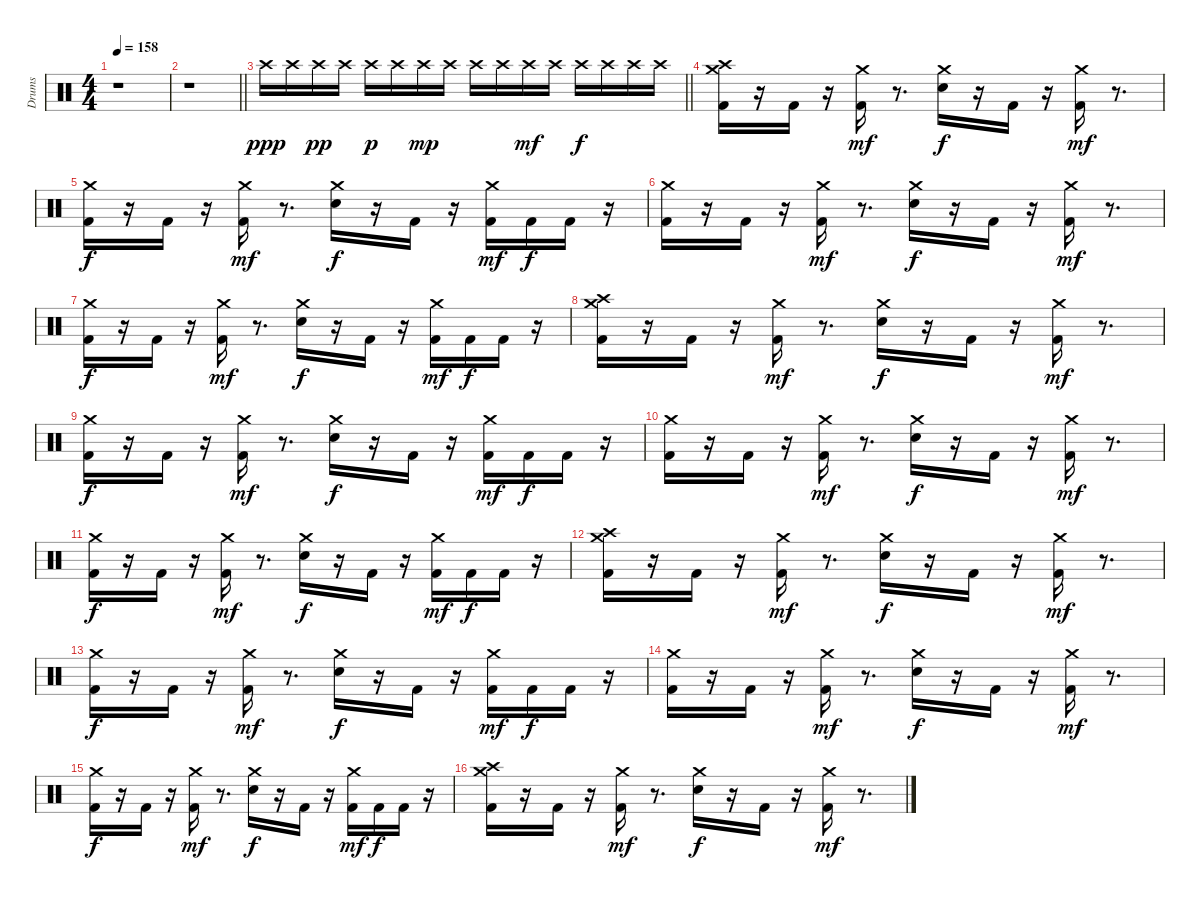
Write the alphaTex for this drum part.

\track ("Drums" "Drums") {instrument percussion}
\staff {score}
\articulation defaults
\ts (4 4)
\tempo 158
\clef neutral
\ks c
r.1{dy mf} |
\barLineRight lightlight
r.1 |
\barLineRight lightlight "Crash high (hit)".16{dy ppp} "Crash high (hit)".16 "Crash high (hit)".16{dy pp} "Crash high (hit)".16 "Crash high (hit)".16{dy p} "Crash high (hit)".16 "Crash high (hit)".16{dy mp} "Crash high (hit)".16 "Crash high (hit)".16 "Crash high (hit)".16 "Crash high (hit)".16{dy mf} "Crash high (hit)".16 "Crash high (hit)".16{dy f} "Crash high (hit)".16 "Crash high (hit)".16 "Crash high (hit)".16
|
\section ("" " ")
("Kick (hit) 2" "Crash high (hit)" "Crash medium (hit)").16 r.16 "Kick (hit) 2".16 r.16 ("Kick (hit) 2" "Crash medium (hit)").16{dy mf} r.8{d} ("Snare (hit) 2" "Crash medium (hit)").16{dy f} r.16 "Kick (hit) 2".16 r.16 ("Kick (hit) 2" "Crash medium (hit)").16{dy mf} r.8{d} |
("Kick (hit) 2" "Crash medium (hit)").16{dy f} r.16 "Kick (hit) 2".16 r.16 ("Kick (hit) 2" "Crash medium (hit)").16{dy mf} r.8{d} ("Snare (hit) 2" "Crash medium (hit)").16{dy f} r.16 "Kick (hit) 2".16 r.16 ("Kick (hit) 2" "Crash medium (hit)").16{dy mf} "Kick (hit) 2".16{dy f} "Kick (hit) 2".16 r.16 |
("Kick (hit) 2" "Crash medium (hit)").16 r.16 "Kick (hit) 2".16 r.16 ("Kick (hit) 2" "Crash medium (hit)").16{dy mf} r.8{d} ("Snare (hit) 2" "Crash medium (hit)").16{dy f} r.16 "Kick (hit) 2".16 r.16 ("Kick (hit) 2" "Crash medium (hit)").16{dy mf} r.8{d} |
("Kick (hit) 2" "Crash medium (hit)").16{dy f} r.16 "Kick (hit) 2".16 r.16 ("Kick (hit) 2" "Crash medium (hit)").16{dy mf} r.8{d} ("Snare (hit) 2" "Crash medium (hit)").16{dy f} r.16 "Kick (hit) 2".16 r.16 ("Kick (hit) 2" "Crash medium (hit)").16{dy mf} "Kick (hit) 2".16{dy f} "Kick (hit) 2".16 r.16 |
("Kick (hit) 2" "Crash high (hit)" "Crash medium (hit)").16 r.16 "Kick (hit) 2".16 r.16 ("Kick (hit) 2" "Crash medium (hit)").16{dy mf} r.8{d} ("Snare (hit) 2" "Crash medium (hit)").16{dy f} r.16 "Kick (hit) 2".16 r.16 ("Kick (hit) 2" "Crash medium (hit)").16{dy mf} r.8{d} |
("Kick (hit) 2" "Crash medium (hit)").16{dy f} r.16 "Kick (hit) 2".16 r.16 ("Kick (hit) 2" "Crash medium (hit)").16{dy mf} r.8{d} ("Snare (hit) 2" "Crash medium (hit)").16{dy f} r.16 "Kick (hit) 2".16 r.16 ("Kick (hit) 2" "Crash medium (hit)").16{dy mf} "Kick (hit) 2".16{dy f} "Kick (hit) 2".16 r.16 |
("Kick (hit) 2" "Crash medium (hit)").16 r.16 "Kick (hit) 2".16 r.16 ("Kick (hit) 2" "Crash medium (hit)").16{dy mf} r.8{d} ("Snare (hit) 2" "Crash medium (hit)").16{dy f} r.16 "Kick (hit) 2".16 r.16 ("Kick (hit) 2" "Crash medium (hit)").16{dy mf} r.8{d} |
("Kick (hit) 2" "Crash medium (hit)").16{dy f} r.16 "Kick (hit) 2".16 r.16 ("Kick (hit) 2" "Crash medium (hit)").16{dy mf} r.8{d} ("Snare (hit) 2" "Crash medium (hit)").16{dy f} r.16 "Kick (hit) 2".16 r.16 ("Kick (hit) 2" "Crash medium (hit)").16{dy mf} "Kick (hit) 2".16{dy f} "Kick (hit) 2".16 r.16 |
("Kick (hit) 2" "Crash high (hit)" "Crash medium (hit)").16 r.16 "Kick (hit) 2".16 r.16 ("Kick (hit) 2" "Crash medium (hit)").16{dy mf} r.8{d} ("Snare (hit) 2" "Crash medium (hit)").16{dy f} r.16 "Kick (hit) 2".16 r.16 ("Kick (hit) 2" "Crash medium (hit)").16{dy mf} r.8{d} |
("Kick (hit) 2" "Crash medium (hit)").16{dy f} r.16 "Kick (hit) 2".16 r.16 ("Kick (hit) 2" "Crash medium (hit)").16{dy mf} r.8{d} ("Snare (hit) 2" "Crash medium (hit)").16{dy f} r.16 "Kick (hit) 2".16 r.16 ("Kick (hit) 2" "Crash medium (hit)").16{dy mf} "Kick (hit) 2".16{dy f} "Kick (hit) 2".16 r.16 |
("Kick (hit) 2" "Crash medium (hit)").16 r.16 "Kick (hit) 2".16 r.16 ("Kick (hit) 2" "Crash medium (hit)").16{dy mf} r.8{d} ("Snare (hit) 2" "Crash medium (hit)").16{dy f} r.16 "Kick (hit) 2".16 r.16 ("Kick (hit) 2" "Crash medium (hit)").16{dy mf} r.8{d} |
("Kick (hit) 2" "Crash medium (hit)").16{dy f} r.16 "Kick (hit) 2".16 r.16 ("Kick (hit) 2" "Crash medium (hit)").16{dy mf} r.8{d} ("Snare (hit) 2" "Crash medium (hit)").16{dy f} r.16 "Kick (hit) 2".16 r.16 ("Kick (hit) 2" "Crash medium (hit)").16{dy mf} "Kick (hit) 2".16{dy f} "Kick (hit) 2".16 r.16 |
("Kick (hit) 2" "Crash high (hit)" "Crash medium (hit)").16 r.16 "Kick (hit) 2".16 r.16 ("Kick (hit) 2" "Crash medium (hit)").16{dy mf} r.8{d} ("Snare (hit) 2" "Crash medium (hit)").16{dy f} r.16 "Kick (hit) 2".16 r.16 ("Kick (hit) 2" "Crash medium (hit)").16{dy mf} r.8{d}
